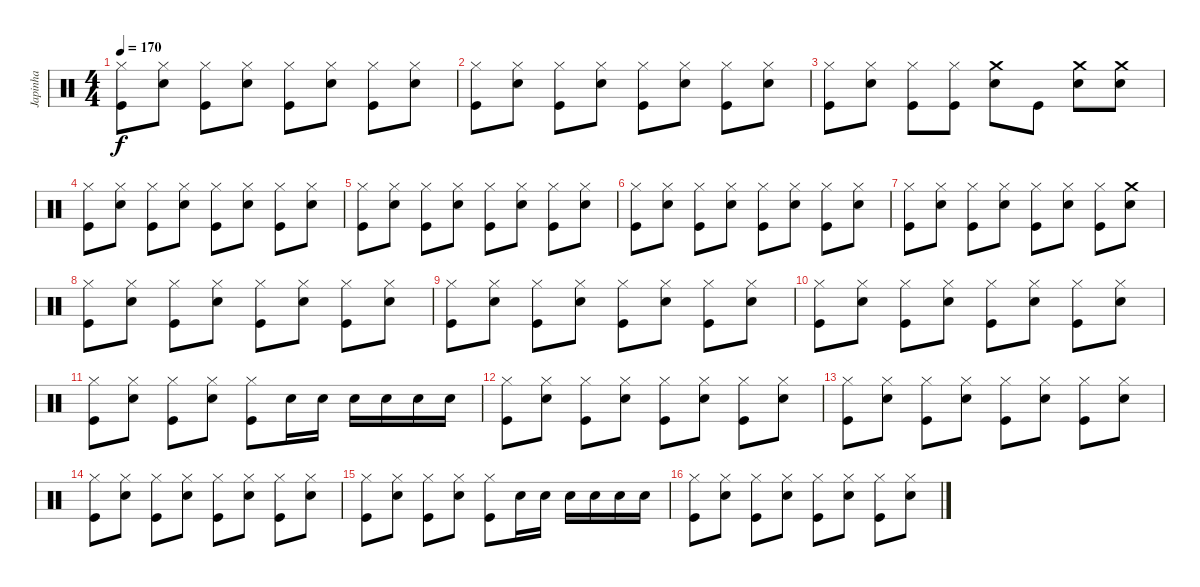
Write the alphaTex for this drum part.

\track ("Japinha" "Japinha") {instrument percussion}
\staff {score}
\articulation defaults
\ts (4 4)
\tempo 170
\clef neutral
\ks c
("Hi-Hat (closed)" "Kick (hit)").8{dy f} ("Hi-Hat (closed)" "Electric Snare (hit)").8 ("Hi-Hat (closed)" "Kick (hit)").8 ("Hi-Hat (closed)" "Electric Snare (hit)").8 ("Hi-Hat (closed)" "Kick (hit)").8 ("Hi-Hat (closed)" "Electric Snare (hit)").8 ("Hi-Hat (closed)" "Kick (hit)").8 ("Hi-Hat (closed)" "Electric Snare (hit)").8 |
("Hi-Hat (closed)" "Kick (hit)").8 ("Hi-Hat (closed)" "Electric Snare (hit)").8 ("Hi-Hat (closed)" "Kick (hit)").8 ("Hi-Hat (closed)" "Electric Snare (hit)").8 ("Hi-Hat (closed)" "Kick (hit)").8 ("Hi-Hat (closed)" "Electric Snare (hit)").8 ("Hi-Hat (closed)" "Kick (hit)").8 ("Hi-Hat (closed)" "Electric Snare (hit)").8 |
("Hi-Hat (closed)" "Kick (hit)").8 ("Hi-Hat (closed)" "Electric Snare (hit)").8 ("Hi-Hat (closed)" "Kick (hit)").8 ("Hi-Hat (closed)" "Kick (hit)").8 ("Crash medium (hit)" "Electric Snare (hit)").8 "Kick (hit)".8 ("Crash medium (hit)" "Electric Snare (hit)").8 ("Crash medium (hit)" "Electric Snare (hit)").8 |
("Hi-Hat (closed)" "Kick (hit)").8 ("Hi-Hat (closed)" "Electric Snare (hit)").8 ("Hi-Hat (closed)" "Kick (hit)").8 ("Hi-Hat (closed)" "Electric Snare (hit)").8 ("Hi-Hat (closed)" "Kick (hit)").8 ("Hi-Hat (closed)" "Electric Snare (hit)").8 ("Hi-Hat (closed)" "Kick (hit)").8 ("Hi-Hat (closed)" "Electric Snare (hit)").8 |
("Hi-Hat (closed)" "Kick (hit)").8 ("Hi-Hat (closed)" "Electric Snare (hit)").8 ("Hi-Hat (closed)" "Kick (hit)").8 ("Hi-Hat (closed)" "Electric Snare (hit)").8 ("Hi-Hat (closed)" "Kick (hit)").8 ("Hi-Hat (closed)" "Electric Snare (hit)").8 ("Hi-Hat (closed)" "Kick (hit)").8 ("Hi-Hat (closed)" "Electric Snare (hit)").8 |
("Hi-Hat (closed)" "Kick (hit)").8 ("Hi-Hat (closed)" "Electric Snare (hit)").8 ("Hi-Hat (closed)" "Kick (hit)").8 ("Hi-Hat (closed)" "Electric Snare (hit)").8 ("Hi-Hat (closed)" "Kick (hit)").8 ("Hi-Hat (closed)" "Electric Snare (hit)").8 ("Hi-Hat (closed)" "Kick (hit)").8 ("Hi-Hat (closed)" "Electric Snare (hit)").8 |
("Hi-Hat (closed)" "Kick (hit)").8 ("Hi-Hat (closed)" "Electric Snare (hit)").8 ("Hi-Hat (closed)" "Kick (hit)").8 ("Hi-Hat (closed)" "Electric Snare (hit)").8 ("Hi-Hat (closed)" "Kick (hit)").8 ("Hi-Hat (closed)" "Electric Snare (hit)").8 ("Hi-Hat (closed)" "Kick (hit)").8 ("Crash medium (hit)" "Electric Snare (hit)").8 |
("Hi-Hat (closed)" "Kick (hit)").8 ("Hi-Hat (closed)" "Electric Snare (hit)").8 ("Hi-Hat (closed)" "Kick (hit)").8 ("Hi-Hat (closed)" "Electric Snare (hit)").8 ("Hi-Hat (closed)" "Kick (hit)").8 ("Hi-Hat (closed)" "Electric Snare (hit)").8 ("Hi-Hat (closed)" "Kick (hit)").8 ("Hi-Hat (closed)" "Electric Snare (hit)").8 |
("Hi-Hat (closed)" "Kick (hit)").8 ("Hi-Hat (closed)" "Electric Snare (hit)").8 ("Hi-Hat (closed)" "Kick (hit)").8 ("Hi-Hat (closed)" "Electric Snare (hit)").8 ("Hi-Hat (closed)" "Kick (hit)").8 ("Hi-Hat (closed)" "Electric Snare (hit)").8 ("Hi-Hat (closed)" "Kick (hit)").8 ("Hi-Hat (closed)" "Electric Snare (hit)").8 |
("Hi-Hat (closed)" "Kick (hit)").8 ("Hi-Hat (closed)" "Electric Snare (hit)").8 ("Hi-Hat (closed)" "Kick (hit)").8 ("Hi-Hat (closed)" "Electric Snare (hit)").8 ("Hi-Hat (closed)" "Kick (hit)").8 ("Hi-Hat (closed)" "Electric Snare (hit)").8 ("Hi-Hat (closed)" "Kick (hit)").8 ("Hi-Hat (closed)" "Electric Snare (hit)").8 |
("Hi-Hat (closed)" "Kick (hit)").8 ("Hi-Hat (closed)" "Electric Snare (hit)").8 ("Hi-Hat (closed)" "Kick (hit)").8 ("Hi-Hat (closed)" "Electric Snare (hit)").8 ("Hi-Hat (closed)" "Kick (hit)").8 "Electric Snare (hit)".16 "Electric Snare (hit)".16 "Electric Snare (hit)".16 "Electric Snare (hit)".16 "Electric Snare (hit)".16 "Electric Snare (hit)".16 |
("Hi-Hat (closed)" "Kick (hit)").8 ("Hi-Hat (closed)" "Electric Snare (hit)").8 ("Hi-Hat (closed)" "Kick (hit)").8 ("Hi-Hat (closed)" "Electric Snare (hit)").8 ("Hi-Hat (closed)" "Kick (hit)").8 ("Hi-Hat (closed)" "Electric Snare (hit)").8 ("Hi-Hat (closed)" "Kick (hit)").8 ("Hi-Hat (closed)" "Electric Snare (hit)").8 |
("Hi-Hat (closed)" "Kick (hit)").8 ("Hi-Hat (closed)" "Electric Snare (hit)").8 ("Hi-Hat (closed)" "Kick (hit)").8 ("Hi-Hat (closed)" "Electric Snare (hit)").8 ("Hi-Hat (closed)" "Kick (hit)").8 ("Hi-Hat (closed)" "Electric Snare (hit)").8 ("Hi-Hat (closed)" "Kick (hit)").8 ("Hi-Hat (closed)" "Electric Snare (hit)").8 |
("Hi-Hat (closed)" "Kick (hit)").8 ("Hi-Hat (closed)" "Electric Snare (hit)").8 ("Hi-Hat (closed)" "Kick (hit)").8 ("Hi-Hat (closed)" "Electric Snare (hit)").8 ("Hi-Hat (closed)" "Kick (hit)").8 ("Hi-Hat (closed)" "Electric Snare (hit)").8 ("Hi-Hat (closed)" "Kick (hit)").8 ("Hi-Hat (closed)" "Electric Snare (hit)").8 |
("Hi-Hat (closed)" "Kick (hit)").8 ("Hi-Hat (closed)" "Electric Snare (hit)").8 ("Hi-Hat (closed)" "Kick (hit)").8 ("Hi-Hat (closed)" "Electric Snare (hit)").8 ("Hi-Hat (closed)" "Kick (hit)").8 "Electric Snare (hit)".16 "Electric Snare (hit)".16 "Electric Snare (hit)".16 "Electric Snare (hit)".16 "Electric Snare (hit)".16 "Electric Snare (hit)".16 |
("Hi-Hat (closed)" "Kick (hit)").8 ("Hi-Hat (closed)" "Electric Snare (hit)").8 ("Hi-Hat (closed)" "Kick (hit)").8 ("Hi-Hat (closed)" "Electric Snare (hit)").8 ("Hi-Hat (closed)" "Kick (hit)").8 ("Hi-Hat (closed)" "Electric Snare (hit)").8 ("Hi-Hat (closed)" "Kick (hit)").8 ("Hi-Hat (closed)" "Electric Snare (hit)").8
